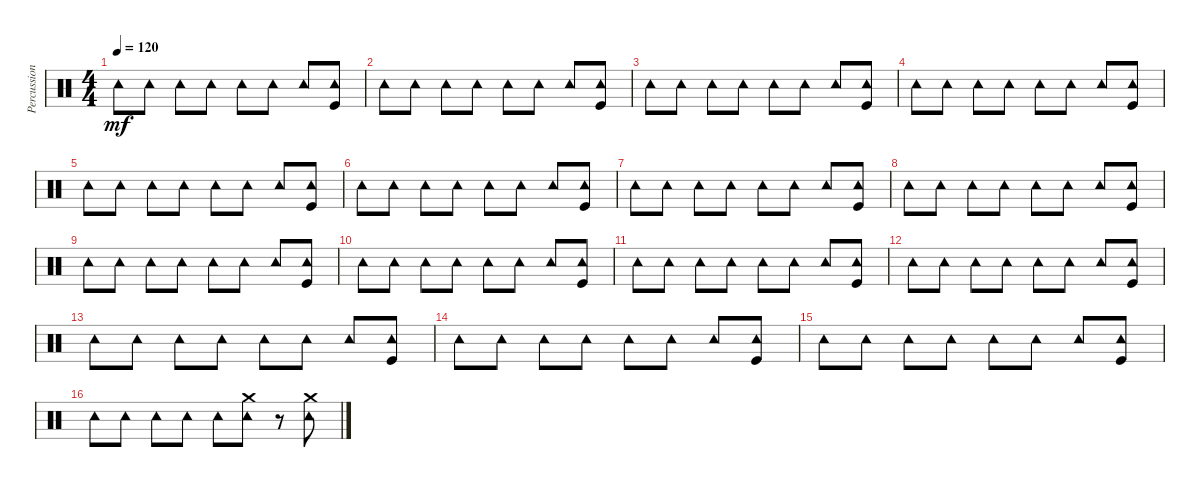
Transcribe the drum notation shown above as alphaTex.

\track ("Percussions" "Percussion") {instrument percussion}
\staff {score}
\articulation defaults
\ts (4 4)
\tempo 120
\clef neutral
\ks c "Tambourine (hit)".8{dy mf} "Tambourine (hit)".8 "Tambourine (hit)".8 "Tambourine (hit)".8 "Tambourine (hit)".8 "Tambourine (hit)".8 "Tambourine (hit)".8
("Kick (hit)" "Tambourine (hit)").8 |
"Tambourine (hit)".8 "Tambourine (hit)".8 "Tambourine (hit)".8 "Tambourine (hit)".8 "Tambourine (hit)".8 "Tambourine (hit)".8 "Tambourine (hit)".8 ("Tambourine (hit)" "Kick (hit)").8 |
"Tambourine (hit)".8 "Tambourine (hit)".8 "Tambourine (hit)".8 "Tambourine (hit)".8 "Tambourine (hit)".8 "Tambourine (hit)".8 "Tambourine (hit)".8 ("Kick (hit)" "Tambourine (hit)").8 |
"Tambourine (hit)".8 "Tambourine (hit)".8 "Tambourine (hit)".8 "Tambourine (hit)".8 "Tambourine (hit)".8 "Tambourine (hit)".8 "Tambourine (hit)".8 ("Tambourine (hit)" "Kick (hit)").8 |
"Tambourine (hit)".8 "Tambourine (hit)".8 "Tambourine (hit)".8 "Tambourine (hit)".8 "Tambourine (hit)".8 "Tambourine (hit)".8 "Tambourine (hit)".8 ("Kick (hit)" "Tambourine (hit)").8 |
"Tambourine (hit)".8 "Tambourine (hit)".8 "Tambourine (hit)".8 "Tambourine (hit)".8 "Tambourine (hit)".8 "Tambourine (hit)".8 "Tambourine (hit)".8 ("Tambourine (hit)" "Kick (hit)").8 |
"Tambourine (hit)".8 "Tambourine (hit)".8 "Tambourine (hit)".8 "Tambourine (hit)".8 "Tambourine (hit)".8 "Tambourine (hit)".8 "Tambourine (hit)".8 ("Tambourine (hit)" "Kick (hit)").8 |
"Tambourine (hit)".8 "Tambourine (hit)".8 "Tambourine (hit)".8 "Tambourine (hit)".8 "Tambourine (hit)".8 "Tambourine (hit)".8 "Tambourine (hit)".8 ("Kick (hit)" "Tambourine (hit)").8 |
"Tambourine (hit)".8 "Tambourine (hit)".8 "Tambourine (hit)".8 "Tambourine (hit)".8 "Tambourine (hit)".8 "Tambourine (hit)".8 "Tambourine (hit)".8 ("Tambourine (hit)" "Kick (hit)").8 |
"Tambourine (hit)".8 "Tambourine (hit)".8 "Tambourine (hit)".8 "Tambourine (hit)".8 "Tambourine (hit)".8 "Tambourine (hit)".8 "Tambourine (hit)".8 ("Tambourine (hit)" "Kick (hit)").8 |
"Tambourine (hit)".8 "Tambourine (hit)".8 "Tambourine (hit)".8 "Tambourine (hit)".8 "Tambourine (hit)".8 "Tambourine (hit)".8 "Tambourine (hit)".8 ("Kick (hit)" "Tambourine (hit)").8 |
"Tambourine (hit)".8 "Tambourine (hit)".8 "Tambourine (hit)".8 "Tambourine (hit)".8 "Tambourine (hit)".8 "Tambourine (hit)".8 "Tambourine (hit)".8 ("Kick (hit)" "Tambourine (hit)").8 |
"Tambourine (hit)".8 "Tambourine (hit)".8 "Tambourine (hit)".8 "Tambourine (hit)".8 "Tambourine (hit)".8 "Tambourine (hit)".8 "Tambourine (hit)".8 ("Kick (hit)" "Tambourine (hit)").8 |
"Tambourine (hit)".8 "Tambourine (hit)".8 "Tambourine (hit)".8 "Tambourine (hit)".8 "Tambourine (hit)".8 "Tambourine (hit)".8 "Tambourine (hit)".8 ("Tambourine (hit)" "Kick (hit)").8 |
"Tambourine (hit)".8 "Tambourine (hit)".8 "Tambourine (hit)".8 "Tambourine (hit)".8 "Tambourine (hit)".8 "Tambourine (hit)".8 "Tambourine (hit)".8 ("Tambourine (hit)" "Kick (hit)").8 |
"Tambourine (hit)".8 "Tambourine (hit)".8 "Tambourine (hit)".8 "Tambourine (hit)".8 "Tambourine (hit)".8 ("Tambourine (hit)" "Crash medium (hit)").8 r.8 ("Crash medium (hit)" "Tambourine (hit)").8
